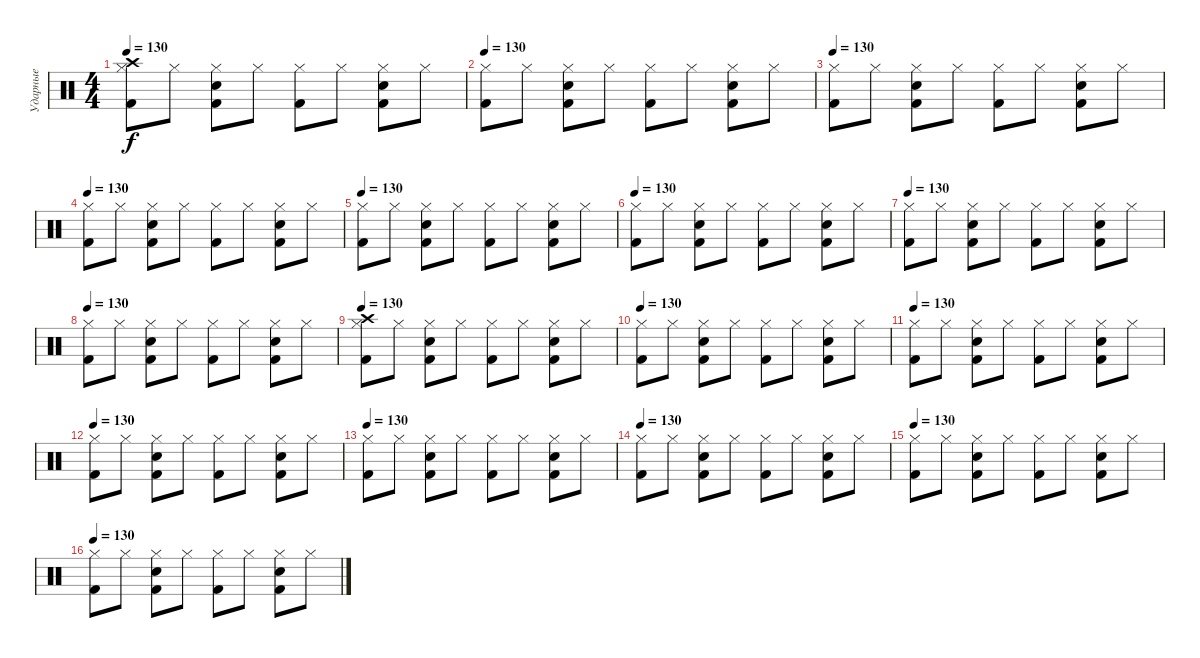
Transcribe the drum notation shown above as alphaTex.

\track ("Ударные" "Ударные") {instrument percussion}
\staff {score}
\articulation defaults
\ts (4 4)
\tempo 130
\clef neutral
\ks c
("Crash high (hit)" "Hi-Hat (closed)" "Kick (hit) 2").8{dy f} "Hi-Hat (closed)".8 ("Hi-Hat (closed)" "Snare (hit) 2" "Kick (hit) 2").8 "Hi-Hat (closed)".8 ("Hi-Hat (closed)" "Kick (hit) 2").8 "Hi-Hat (closed)".8 ("Hi-Hat (closed)" "Snare (hit) 2" "Kick (hit) 2").8 "Hi-Hat (closed)".8 |
\tempo 130
("Hi-Hat (closed)" "Kick (hit) 2").8 "Hi-Hat (closed)".8 ("Hi-Hat (closed)" "Snare (hit) 2" "Kick (hit) 2").8 "Hi-Hat (closed)".8 ("Hi-Hat (closed)" "Kick (hit) 2").8 "Hi-Hat (closed)".8 ("Hi-Hat (closed)" "Snare (hit) 2" "Kick (hit) 2").8 "Hi-Hat (closed)".8 |
\tempo 130
("Hi-Hat (closed)" "Kick (hit) 2").8 "Hi-Hat (closed)".8 ("Hi-Hat (closed)" "Snare (hit) 2" "Kick (hit) 2").8 "Hi-Hat (closed)".8 ("Hi-Hat (closed)" "Kick (hit) 2").8 "Hi-Hat (closed)".8 ("Hi-Hat (closed)" "Snare (hit) 2" "Kick (hit) 2").8 "Hi-Hat (closed)".8 |
\tempo 130
("Hi-Hat (closed)" "Kick (hit) 2").8 "Hi-Hat (closed)".8 ("Hi-Hat (closed)" "Snare (hit) 2" "Kick (hit) 2").8 "Hi-Hat (closed)".8 ("Hi-Hat (closed)" "Kick (hit) 2").8 "Hi-Hat (closed)".8 ("Hi-Hat (closed)" "Snare (hit) 2" "Kick (hit) 2").8 "Hi-Hat (closed)".8 |
\tempo 130
("Hi-Hat (closed)" "Kick (hit) 2").8 "Hi-Hat (closed)".8 ("Hi-Hat (closed)" "Snare (hit) 2" "Kick (hit) 2").8 "Hi-Hat (closed)".8 ("Hi-Hat (closed)" "Kick (hit) 2").8 "Hi-Hat (closed)".8 ("Hi-Hat (closed)" "Snare (hit) 2" "Kick (hit) 2").8 "Hi-Hat (closed)".8 |
\tempo 130
("Hi-Hat (closed)" "Kick (hit) 2").8 "Hi-Hat (closed)".8 ("Hi-Hat (closed)" "Snare (hit) 2" "Kick (hit) 2").8 "Hi-Hat (closed)".8 ("Hi-Hat (closed)" "Kick (hit) 2").8 "Hi-Hat (closed)".8 ("Hi-Hat (closed)" "Snare (hit) 2" "Kick (hit) 2").8 "Hi-Hat (closed)".8 |
\tempo 130
("Hi-Hat (closed)" "Kick (hit) 2").8 "Hi-Hat (closed)".8 ("Hi-Hat (closed)" "Snare (hit) 2" "Kick (hit) 2").8 "Hi-Hat (closed)".8 ("Hi-Hat (closed)" "Kick (hit) 2").8 "Hi-Hat (closed)".8 ("Hi-Hat (closed)" "Snare (hit) 2" "Kick (hit) 2").8 "Hi-Hat (closed)".8 |
\tempo 130
("Hi-Hat (closed)" "Kick (hit) 2").8 "Hi-Hat (closed)".8 ("Hi-Hat (closed)" "Snare (hit) 2" "Kick (hit) 2").8 "Hi-Hat (closed)".8 ("Hi-Hat (closed)" "Kick (hit) 2").8 "Hi-Hat (closed)".8 ("Hi-Hat (closed)" "Snare (hit) 2" "Kick (hit) 2").8 "Hi-Hat (closed)".8 |
\tempo 130
("Crash high (hit)" "Hi-Hat (closed)" "Kick (hit) 2").8 "Hi-Hat (closed)".8 ("Hi-Hat (closed)" "Snare (hit) 2" "Kick (hit) 2").8 "Hi-Hat (closed)".8 ("Hi-Hat (closed)" "Kick (hit) 2").8 "Hi-Hat (closed)".8 ("Hi-Hat (closed)" "Snare (hit) 2" "Kick (hit) 2").8 "Hi-Hat (closed)".8 |
\tempo 130
("Hi-Hat (closed)" "Kick (hit) 2").8 "Hi-Hat (closed)".8 ("Hi-Hat (closed)" "Snare (hit) 2" "Kick (hit) 2").8 "Hi-Hat (closed)".8 ("Hi-Hat (closed)" "Kick (hit) 2").8 "Hi-Hat (closed)".8 ("Hi-Hat (closed)" "Snare (hit) 2" "Kick (hit) 2").8 "Hi-Hat (closed)".8 |
\tempo 130
("Hi-Hat (closed)" "Kick (hit) 2").8 "Hi-Hat (closed)".8 ("Hi-Hat (closed)" "Snare (hit) 2" "Kick (hit) 2").8 "Hi-Hat (closed)".8 ("Hi-Hat (closed)" "Kick (hit) 2").8 "Hi-Hat (closed)".8 ("Hi-Hat (closed)" "Snare (hit) 2" "Kick (hit) 2").8 "Hi-Hat (closed)".8 |
\tempo 130
("Hi-Hat (closed)" "Kick (hit) 2").8 "Hi-Hat (closed)".8 ("Hi-Hat (closed)" "Snare (hit) 2" "Kick (hit) 2").8 "Hi-Hat (closed)".8 ("Hi-Hat (closed)" "Kick (hit) 2").8 "Hi-Hat (closed)".8 ("Hi-Hat (closed)" "Snare (hit) 2" "Kick (hit) 2").8 "Hi-Hat (closed)".8 |
\tempo 130
("Hi-Hat (closed)" "Kick (hit) 2").8 "Hi-Hat (closed)".8 ("Hi-Hat (closed)" "Snare (hit) 2" "Kick (hit) 2").8 "Hi-Hat (closed)".8 ("Hi-Hat (closed)" "Kick (hit) 2").8 "Hi-Hat (closed)".8 ("Hi-Hat (closed)" "Snare (hit) 2" "Kick (hit) 2").8 "Hi-Hat (closed)".8 |
\tempo 130
("Hi-Hat (closed)" "Kick (hit) 2").8 "Hi-Hat (closed)".8 ("Hi-Hat (closed)" "Snare (hit) 2" "Kick (hit) 2").8 "Hi-Hat (closed)".8 ("Hi-Hat (closed)" "Kick (hit) 2").8 "Hi-Hat (closed)".8 ("Hi-Hat (closed)" "Snare (hit) 2" "Kick (hit) 2").8 "Hi-Hat (closed)".8 |
\tempo 130
("Hi-Hat (closed)" "Kick (hit) 2").8 "Hi-Hat (closed)".8 ("Hi-Hat (closed)" "Snare (hit) 2" "Kick (hit) 2").8 "Hi-Hat (closed)".8 ("Hi-Hat (closed)" "Kick (hit) 2").8 "Hi-Hat (closed)".8 ("Hi-Hat (closed)" "Snare (hit) 2" "Kick (hit) 2").8 "Hi-Hat (closed)".8 |
\tempo 130
("Hi-Hat (closed)" "Kick (hit) 2").8 "Hi-Hat (closed)".8 ("Hi-Hat (closed)" "Snare (hit) 2" "Kick (hit) 2").8 "Hi-Hat (closed)".8 ("Hi-Hat (closed)" "Kick (hit) 2").8 "Hi-Hat (closed)".8 ("Hi-Hat (closed)" "Snare (hit) 2" "Kick (hit) 2").8 "Hi-Hat (closed)".8
